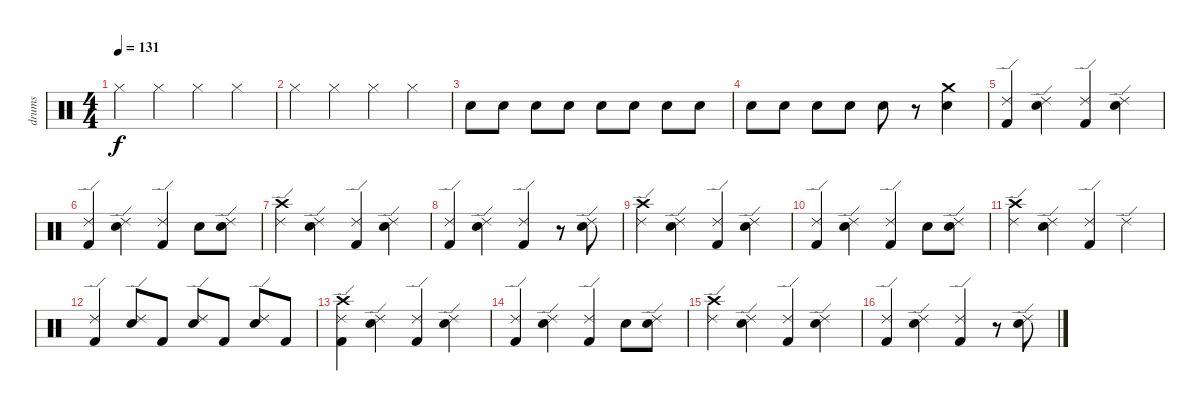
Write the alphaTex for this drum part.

\track ("drums" "drums") {instrument percussion}
\staff {score}
\articulation defaults
\ts (4 4)
\tempo 131
\clef neutral
\ks c "Hi-Hat (closed)".4{dy f} "Hi-Hat (closed)".4 "Hi-Hat (closed)".4 "Hi-Hat (closed)".4
|
"Hi-Hat (closed)".4 "Hi-Hat (closed)".4 "Hi-Hat (closed)".4 "Hi-Hat (closed)".4 |
"Electric Snare (hit)".8 "Electric Snare (hit)".8 "Electric Snare (hit)".8 "Electric Snare (hit)".8 "Electric Snare (hit)".8 "Electric Snare (hit)".8 "Electric Snare (hit)".8 "Electric Snare (hit)".8 |
"Electric Snare (hit)".8 "Electric Snare (hit)".8 "Electric Snare (hit)".8 "Electric Snare (hit)".8 "Electric Snare (hit)".8 r.8 ("Crash medium (hit)" "Electric Snare (hit)").4 |
("Kick (hit) 2" "Ride (edge) 2").4 ("Electric Snare (hit)" "Ride (edge) 2").4 ("Kick (hit) 2" "Ride (edge) 2").4 ("Electric Snare (hit)" "Ride (edge) 2").4 |
("Kick (hit) 2" "Ride (edge) 2").4 ("Electric Snare (hit)" "Ride (edge) 2").4 ("Kick (hit) 2" "Ride (edge) 2").4 "Electric Snare (hit)".8 ("Electric Snare (hit)" "Ride (edge) 2").8 |
("Crash high (hit)" "Ride (edge) 2").4 ("Electric Snare (hit)" "Ride (edge) 2").4 ("Kick (hit) 2" "Ride (edge) 2").4 ("Electric Snare (hit)" "Ride (edge) 2").4 |
("Kick (hit) 2" "Ride (edge) 2").4 ("Electric Snare (hit)" "Ride (edge) 2").4 ("Kick (hit) 2" "Ride (edge) 2").4 r.8 ("Electric Snare (hit)" "Ride (edge) 2").8 |
("Crash high (hit)" "Ride (edge) 2").4 ("Electric Snare (hit)" "Ride (edge) 2").4 ("Kick (hit) 2" "Ride (edge) 2").4 ("Electric Snare (hit)" "Ride (edge) 2").4 |
("Kick (hit) 2" "Ride (edge) 2").4 ("Electric Snare (hit)" "Ride (edge) 2").4 ("Kick (hit) 2" "Ride (edge) 2").4 "Electric Snare (hit)".8 ("Electric Snare (hit)" "Ride (edge) 2").8 |
("Crash high (hit)" "Ride (edge) 2").4 ("Electric Snare (hit)" "Ride (edge) 2").4 ("Kick (hit) 2" "Ride (edge) 2").4 "Ride (edge) 2".4 |
("Kick (hit) 2" "Ride (edge) 2").4 ("Electric Snare (hit)" "Ride (edge) 2").8 "Kick (hit) 2".8 ("Electric Snare (hit)" "Ride (edge) 2").8 "Kick (hit) 2".8 ("Electric Snare (hit)" "Ride (edge) 2").8 "Kick (hit) 2".8 |
("Crash high (hit)" "Kick (hit) 2" "Ride (edge) 2").4 ("Electric Snare (hit)" "Ride (edge) 2").4 ("Kick (hit) 2" "Ride (edge) 2").4 ("Electric Snare (hit)" "Ride (edge) 2").4 |
("Kick (hit) 2" "Ride (edge) 2").4 ("Electric Snare (hit)" "Ride (edge) 2").4 ("Kick (hit) 2" "Ride (edge) 2").4 "Electric Snare (hit)".8 ("Electric Snare (hit)" "Ride (edge) 2").8 |
("Crash high (hit)" "Ride (edge) 2").4 ("Electric Snare (hit)" "Ride (edge) 2").4 ("Kick (hit) 2" "Ride (edge) 2").4 ("Electric Snare (hit)" "Ride (edge) 2").4 |
("Kick (hit) 2" "Ride (edge) 2").4 ("Electric Snare (hit)" "Ride (edge) 2").4 ("Kick (hit) 2" "Ride (edge) 2").4 r.8 ("Electric Snare (hit)" "Ride (edge) 2").8
